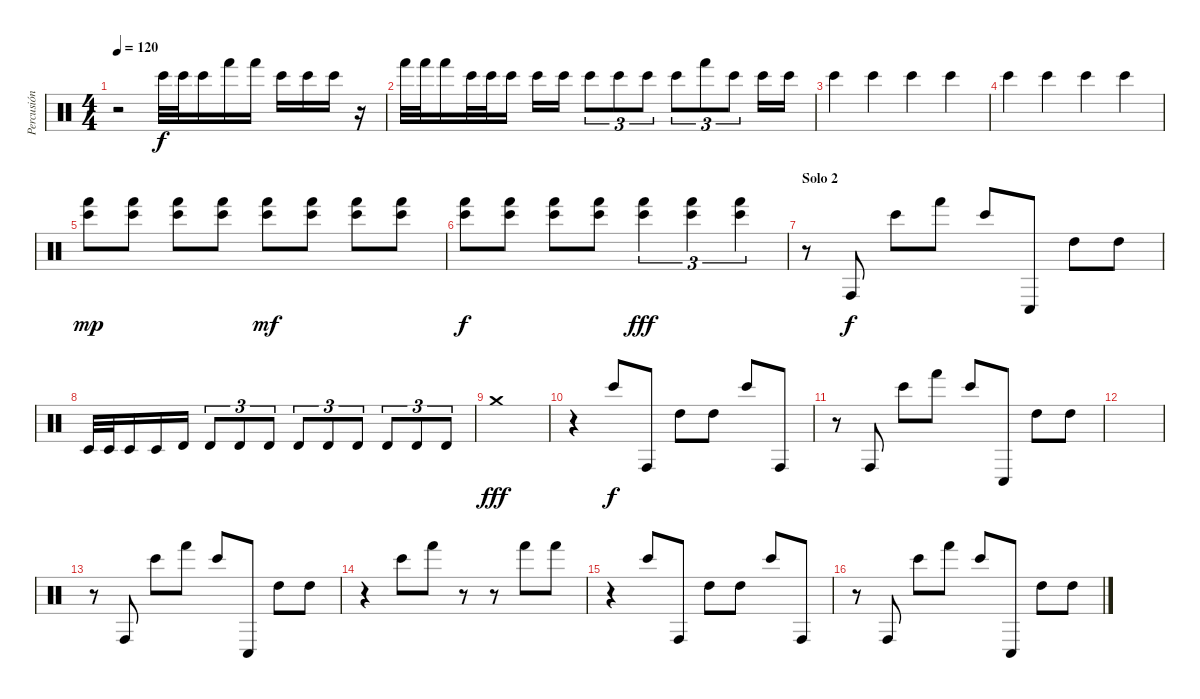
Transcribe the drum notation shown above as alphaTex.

\track ("Percusión" "Percusión") {instrument percussion}
\staff {score}
\articulation defaults
\ts (4 4)
\tempo 120
\clef neutral
\ks c
r.2{dy f} "Bongo High (hit)".32 "Bongo High (hit)".32 "Bongo High (hit)".16 "Hand (hit)".16 "Hand (hit)".16 "Bongo High (hit)".16 "Bongo High (hit)".16 "Bongo High (hit)".16 r.16 |
"Hand (hit)".32 "Hand (hit)".32 "Hand (hit)".16 "Bongo High (hit)".32 "Bongo High (hit)".32 "Bongo High (hit)".16 "Bongo High (hit)".16 "Bongo High (hit)".16 "Bongo High (hit)".8{tu (3 2)} "Bongo High (hit)".8{tu (3 2)} "Bongo High (hit)".8{tu (3 2)} "Bongo High (hit)".8{tu (3 2)} "Hand (hit)".8{tu (3 2)} "Bongo High (hit)".8{tu (3 2)} "Bongo High (hit)".16 "Bongo High (hit)".16 |
"Bongo High (hit)".4 "Bongo High (hit)".4 "Bongo High (hit)".4 "Bongo High (hit)".4 |
"Bongo High (hit)".4 "Bongo High (hit)".4 "Bongo High (hit)".4 "Bongo High (hit)".4 |
("Bongo High (hit)" "Hand (hit)").8{dy mp} ("Bongo High (hit)" "Hand (hit)").8 ("Bongo High (hit)" "Hand (hit)").8 ("Bongo High (hit)" "Hand (hit)").8 ("Bongo High (hit)" "Hand (hit)").8{dy mf} ("Bongo High (hit)" "Hand (hit)").8 ("Bongo High (hit)" "Hand (hit)").8 ("Bongo High (hit)" "Hand (hit)").8 |
("Bongo High (hit)" "Hand (hit)").8{dy f} ("Bongo High (hit)" "Hand (hit)").8 ("Bongo High (hit)" "Hand (hit)").8 ("Bongo High (hit)" "Hand (hit)").8 ("Bongo High (hit)" "Hand (hit)").4{tu (3 2) dy fff} ("Bongo High (hit)" "Hand (hit)").4{tu (3 2)} ("Bongo High (hit)" "Hand (hit)").4{tu (3 2)} |
\section ("" "Solo 2")
r.8 "Conga high (hit)".8{dy f} "Bongo High (hit)".8 "Hand (hit)".8 "Bongo High (hit)".8 "Conga low (hit)".8 "High Tom (hit)".8 "High Tom (hit)".8 |
"Timbale low (hit)".32 "Timbale low (hit)".32 "Timbale low (hit)".16 "Timbale low (hit)".16 "Timbale high (hit)".16 "Timbale high (hit)".8{tu (3 2)} "Timbale high (hit)".8{tu (3 2)} "Timbale high (hit)".8{tu (3 2)} "Timbale high (hit)".8{tu (3 2)} "Timbale high (hit)".8{tu (3 2)} "Timbale high (hit)".8{tu (3 2)} "Timbale high (hit)".8{tu (3 2)} "Timbale high (hit)".8{tu (3 2)} "Timbale high (hit)".8{tu (3 2)} |
"Crash medium (hit)".1{dy fff} |
r.4 "Bongo High (hit)".8{dy f} "Conga high (hit)".8 "High Tom (hit)".8 "High Tom (hit)".8 "Bongo High (hit)".8 "Conga high (hit)".8 |
r.8 "Conga high (hit)".8 "Bongo High (hit)".8 "Hand (hit)".8 "Bongo High (hit)".8 "Conga low (hit)".8 "High Tom (hit)".8 "High Tom (hit)".8 |
|
r.8 "Conga high (hit)".8 "Bongo High (hit)".8 "Hand (hit)".8 "Bongo High (hit)".8 "Conga low (hit)".8 "High Tom (hit)".8 "High Tom (hit)".8 |
r.4 "Bongo High (hit)".8 "Hand (hit)".8 r.8 r.8 "Hand (hit)".8 "Hand (hit)".8 |
r.4 "Bongo High (hit)".8 "Conga high (hit)".8 "High Tom (hit)".8 "High Tom (hit)".8 "Bongo High (hit)".8 "Conga high (hit)".8 |
r.8 "Conga high (hit)".8 "Bongo High (hit)".8 "Hand (hit)".8 "Bongo High (hit)".8 "Conga low (hit)".8 "High Tom (hit)".8 "High Tom (hit)".8
